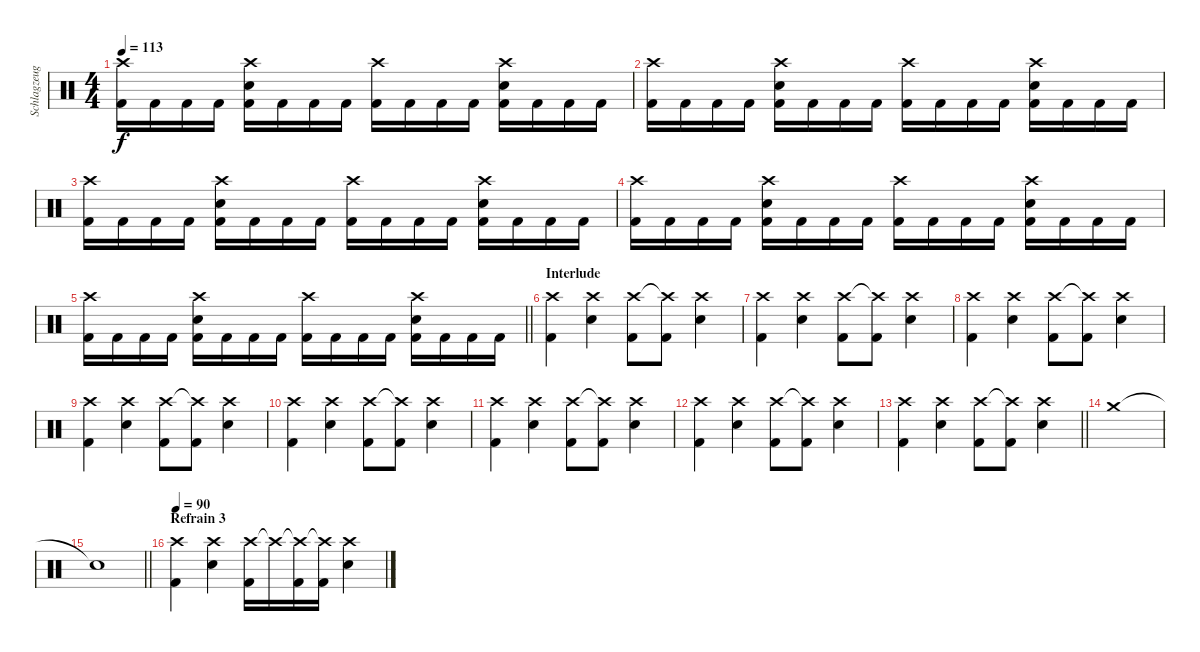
\track ("Schlagzeug" "Schlagzeug") {instrument percussion}
\staff {score}
\articulation defaults
\ts (4 4)
\tempo 113
\clef neutral
\ks c
("Crash high (hit)" "Kick (hit) 2").16{dy f} "Kick (hit) 2".16 "Kick (hit) 2".16 "Kick (hit) 2".16 ("Crash high (hit)" "Snare (hit) 2" "Kick (hit) 2").16 "Kick (hit) 2".16 "Kick (hit) 2".16 "Kick (hit) 2".16 ("Crash high (hit)" "Kick (hit) 2").16 "Kick (hit) 2".16 "Kick (hit) 2".16 "Kick (hit) 2".16 ("Crash high (hit)" "Snare (hit) 2" "Kick (hit) 2").16 "Kick (hit) 2".16 "Kick (hit) 2".16 "Kick (hit) 2".16 |
("Crash high (hit)" "Kick (hit) 2").16 "Kick (hit) 2".16 "Kick (hit) 2".16 "Kick (hit) 2".16 ("Crash high (hit)" "Snare (hit) 2" "Kick (hit) 2").16 "Kick (hit) 2".16 "Kick (hit) 2".16 "Kick (hit) 2".16 ("Crash high (hit)" "Kick (hit) 2").16 "Kick (hit) 2".16 "Kick (hit) 2".16 "Kick (hit) 2".16 ("Crash high (hit)" "Snare (hit) 2" "Kick (hit) 2").16 "Kick (hit) 2".16 "Kick (hit) 2".16 "Kick (hit) 2".16 |
("Crash high (hit)" "Kick (hit) 2").16 "Kick (hit) 2".16 "Kick (hit) 2".16 "Kick (hit) 2".16 ("Crash high (hit)" "Snare (hit) 2" "Kick (hit) 2").16 "Kick (hit) 2".16 "Kick (hit) 2".16 "Kick (hit) 2".16 ("Crash high (hit)" "Kick (hit) 2").16 "Kick (hit) 2".16 "Kick (hit) 2".16 "Kick (hit) 2".16 ("Crash high (hit)" "Snare (hit) 2" "Kick (hit) 2").16 "Kick (hit) 2".16 "Kick (hit) 2".16 "Kick (hit) 2".16 |
("Crash high (hit)" "Kick (hit) 2").16 "Kick (hit) 2".16 "Kick (hit) 2".16 "Kick (hit) 2".16 ("Crash high (hit)" "Snare (hit) 2" "Kick (hit) 2").16 "Kick (hit) 2".16 "Kick (hit) 2".16 "Kick (hit) 2".16 ("Crash high (hit)" "Kick (hit) 2").16 "Kick (hit) 2".16 "Kick (hit) 2".16 "Kick (hit) 2".16 ("Crash high (hit)" "Snare (hit) 2" "Kick (hit) 2").16 "Kick (hit) 2".16 "Kick (hit) 2".16 "Kick (hit) 2".16 |
\barLineRight lightlight
("Crash high (hit)" "Kick (hit) 2").16 "Kick (hit) 2".16 "Kick (hit) 2".16 "Kick (hit) 2".16 ("Crash high (hit)" "Snare (hit) 2" "Kick (hit) 2").16 "Kick (hit) 2".16 "Kick (hit) 2".16 "Kick (hit) 2".16 ("Crash high (hit)" "Kick (hit) 2").16 "Kick (hit) 2".16 "Kick (hit) 2".16 "Kick (hit) 2".16 ("Crash high (hit)" "Snare (hit) 2" "Kick (hit) 2").16 "Kick (hit) 2".16 "Kick (hit) 2".16 "Kick (hit) 2".16 |
\section ("" "Interlude")
("Crash high (hit)" "Kick (hit) 2").4 ("Crash high (hit)" "Snare (hit) 2").4 ("Crash high (hit)" "Kick (hit) 2").8 ("Crash high (hit)"{t} "Kick (hit) 2").8 ("Crash high (hit)" "Snare (hit) 2").4 |
("Crash high (hit)" "Kick (hit) 2").4 ("Crash high (hit)" "Snare (hit) 2").4 ("Crash high (hit)" "Kick (hit) 2").8 ("Crash high (hit)"{t} "Kick (hit) 2").8 ("Crash high (hit)" "Snare (hit) 2").4 |
("Crash high (hit)" "Kick (hit) 2").4 ("Crash high (hit)" "Snare (hit) 2").4 ("Crash high (hit)" "Kick (hit) 2").8 ("Crash high (hit)"{t} "Kick (hit) 2").8 ("Crash high (hit)" "Snare (hit) 2").4 |
("Crash high (hit)" "Kick (hit) 2").4 ("Crash high (hit)" "Snare (hit) 2").4 ("Crash high (hit)" "Kick (hit) 2").8 ("Crash high (hit)"{t} "Kick (hit) 2").8 ("Crash high (hit)" "Snare (hit) 2").4 |
("Crash high (hit)" "Kick (hit) 2").4 ("Crash high (hit)" "Snare (hit) 2").4 ("Crash high (hit)" "Kick (hit) 2").8 ("Crash high (hit)"{t} "Kick (hit) 2").8 ("Crash high (hit)" "Snare (hit) 2").4 |
("Crash high (hit)" "Kick (hit) 2").4 ("Crash high (hit)" "Snare (hit) 2").4 ("Crash high (hit)" "Kick (hit) 2").8 ("Crash high (hit)"{t} "Kick (hit) 2").8 ("Crash high (hit)" "Snare (hit) 2").4 |
("Crash high (hit)" "Kick (hit) 2").4 ("Crash high (hit)" "Snare (hit) 2").4 ("Crash high (hit)" "Kick (hit) 2").8 ("Crash high (hit)"{t} "Kick (hit) 2").8 ("Crash high (hit)" "Snare (hit) 2").4 |
\barLineRight lightlight
("Crash high (hit)" "Kick (hit) 2").4 ("Crash high (hit)" "Snare (hit) 2").4 ("Crash high (hit)" "Kick (hit) 2").8 ("Crash high (hit)"{t} "Kick (hit) 2").8 ("Crash high (hit)" "Snare (hit) 2").4 |
"Crash medium (hit)".1 |
\barLineRight lightlight "Snare (hit)"{t}.1
|
\section ("" "Refrain 3")
\tempo 90
("Crash high (hit)" "Kick (hit) 2").4 ("Crash high (hit)" "Snare (hit) 2").4 ("Crash high (hit)" "Kick (hit) 2").16 "Crash high (hit)"{t}.16 ("Crash high (hit)"{t} "Kick (hit) 2").16 ("Crash high (hit)"{t} "Kick (hit) 2").16 ("Crash high (hit)" "Snare (hit) 2").4
